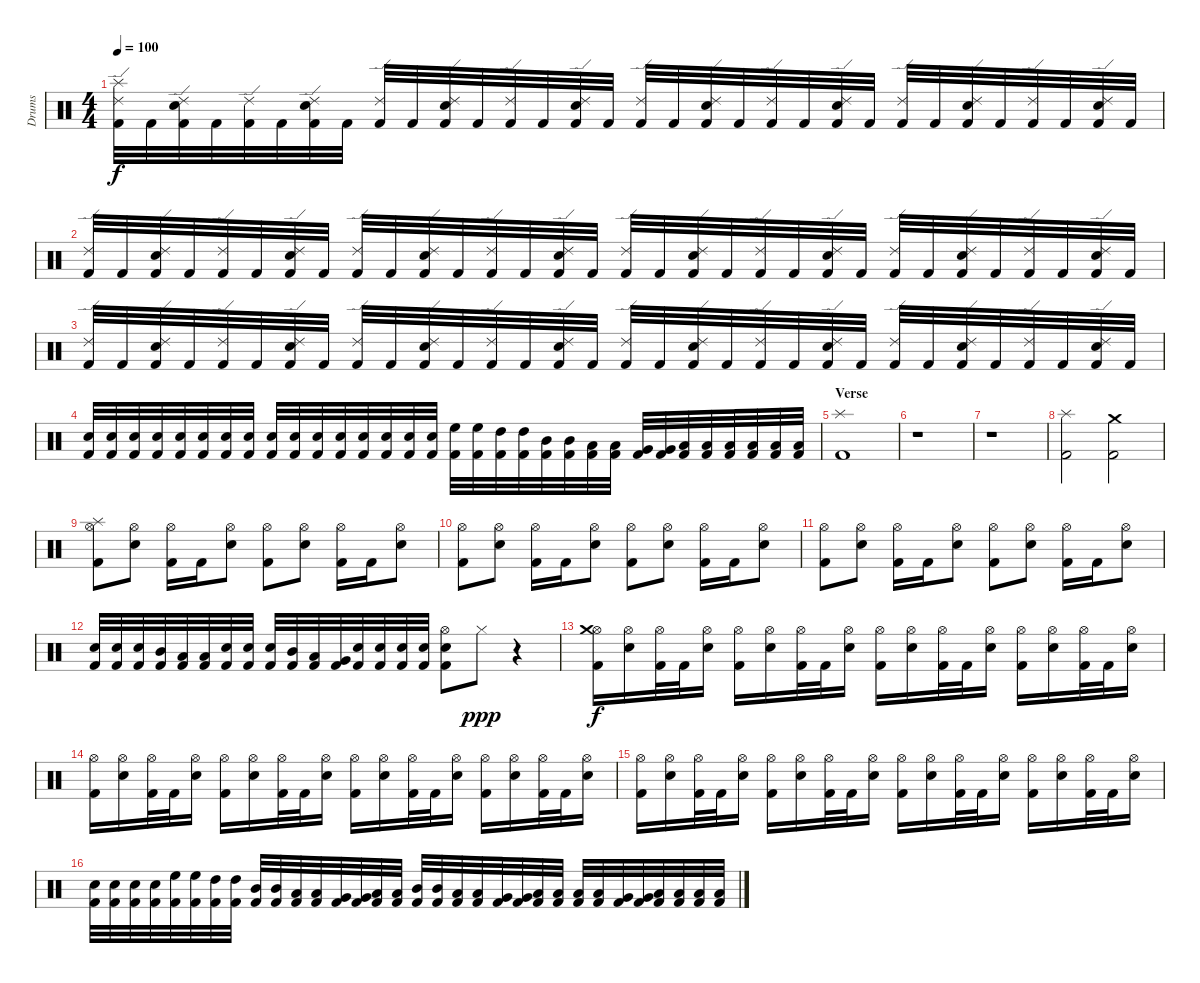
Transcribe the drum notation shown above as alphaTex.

\track ("Drums" "Drums") {instrument percussion}
\staff {score}
\articulation defaults
\ts (4 4)
\tempo 100
\clef neutral
\ks c
("Kick (hit) 2" "Ride (edge) 2" "Splash (hit)").32{dy f} "Kick (hit) 2".32 ("Kick (hit) 2" "Snare (hit) 2" "Ride (edge) 2").32 "Kick (hit) 2".32 ("Kick (hit) 2" "Ride (edge) 2").32 "Kick (hit) 2".32 ("Kick (hit) 2" "Snare (hit) 2" "Ride (edge) 2").32 "Kick (hit) 2".32 ("Kick (hit) 2" "Ride (edge) 2").32 "Kick (hit) 2".32 ("Kick (hit) 2" "Snare (hit) 2" "Ride (edge) 2").32 "Kick (hit) 2".32 ("Kick (hit) 2" "Ride (edge) 2").32 "Kick (hit) 2".32 ("Kick (hit) 2" "Snare (hit) 2" "Ride (edge) 2").32 "Kick (hit) 2".32 ("Kick (hit) 2" "Ride (edge) 2").32 "Kick (hit) 2".32 ("Kick (hit) 2" "Snare (hit) 2" "Ride (edge) 2").32 "Kick (hit) 2".32 ("Kick (hit) 2" "Ride (edge) 2").32 "Kick (hit) 2".32 ("Kick (hit) 2" "Snare (hit) 2" "Ride (edge) 2").32 "Kick (hit) 2".32 ("Kick (hit) 2" "Ride (edge) 2").32 "Kick (hit) 2".32 ("Kick (hit) 2" "Snare (hit) 2" "Ride (edge) 2").32 "Kick (hit) 2".32 ("Kick (hit) 2" "Ride (edge) 2").32 "Kick (hit) 2".32 ("Kick (hit) 2" "Snare (hit) 2" "Ride (edge) 2").32 "Kick (hit) 2".32 |
("Kick (hit) 2" "Ride (edge) 2").32 "Kick (hit) 2".32 ("Kick (hit) 2" "Snare (hit) 2" "Ride (edge) 2").32 "Kick (hit) 2".32 ("Kick (hit) 2" "Ride (edge) 2").32 "Kick (hit) 2".32 ("Kick (hit) 2" "Snare (hit) 2" "Ride (edge) 2").32 "Kick (hit) 2".32 ("Kick (hit) 2" "Ride (edge) 2").32 "Kick (hit) 2".32 ("Kick (hit) 2" "Snare (hit) 2" "Ride (edge) 2").32 "Kick (hit) 2".32 ("Kick (hit) 2" "Ride (edge) 2").32 "Kick (hit) 2".32 ("Kick (hit) 2" "Snare (hit) 2" "Ride (edge) 2").32 "Kick (hit) 2".32 ("Kick (hit) 2" "Ride (edge) 2").32 "Kick (hit) 2".32 ("Kick (hit) 2" "Snare (hit) 2" "Ride (edge) 2").32 "Kick (hit) 2".32 ("Kick (hit) 2" "Ride (edge) 2").32 "Kick (hit) 2".32 ("Kick (hit) 2" "Snare (hit) 2" "Ride (edge) 2").32 "Kick (hit) 2".32 ("Kick (hit) 2" "Ride (edge) 2").32 "Kick (hit) 2".32 ("Kick (hit) 2" "Snare (hit) 2" "Ride (edge) 2").32 "Kick (hit) 2".32 ("Kick (hit) 2" "Ride (edge) 2").32 "Kick (hit) 2".32 ("Kick (hit) 2" "Snare (hit) 2" "Ride (edge) 2").32 "Kick (hit) 2".32 |
("Kick (hit) 2" "Ride (edge) 2").32 "Kick (hit) 2".32 ("Kick (hit) 2" "Snare (hit) 2" "Ride (edge) 2").32 "Kick (hit) 2".32 ("Kick (hit) 2" "Ride (edge) 2").32 "Kick (hit) 2".32 ("Kick (hit) 2" "Snare (hit) 2" "Ride (edge) 2").32 "Kick (hit) 2".32 ("Kick (hit) 2" "Ride (edge) 2").32 "Kick (hit) 2".32 ("Kick (hit) 2" "Snare (hit) 2" "Ride (edge) 2").32 "Kick (hit) 2".32 ("Kick (hit) 2" "Ride (edge) 2").32 "Kick (hit) 2".32 ("Kick (hit) 2" "Snare (hit) 2" "Ride (edge) 2").32 "Kick (hit) 2".32 ("Kick (hit) 2" "Ride (edge) 2").32 "Kick (hit) 2".32 ("Kick (hit) 2" "Snare (hit) 2" "Ride (edge) 2").32 "Kick (hit) 2".32 ("Kick (hit) 2" "Ride (edge) 2").32 "Kick (hit) 2".32 ("Kick (hit) 2" "Snare (hit) 2" "Ride (edge) 2").32 "Kick (hit) 2".32 ("Kick (hit) 2" "Ride (edge) 2").32 "Kick (hit) 2".32 ("Kick (hit) 2" "Snare (hit) 2" "Ride (edge) 2").32 "Kick (hit) 2".32 ("Kick (hit) 2" "Ride (edge) 2").32 "Kick (hit) 2".32 ("Kick (hit) 2" "Snare (hit) 2" "Ride (edge) 2").32 "Kick (hit) 2".32 |
("Kick (hit) 2" "Snare (hit) 2").32 ("Kick (hit) 2" "Snare (hit) 2").32 ("Kick (hit) 2" "Snare (hit) 2").32 ("Kick (hit) 2" "Snare (hit) 2").32 ("Kick (hit) 2" "Snare (hit) 2").32 ("Kick (hit) 2" "Snare (hit) 2").32 ("Kick (hit) 2" "Snare (hit) 2").32 ("Kick (hit) 2" "Snare (hit) 2").32 ("Kick (hit) 2" "Snare (hit) 2").32 ("Kick (hit) 2" "Snare (hit) 2").32 ("Kick (hit) 2" "Snare (hit) 2").32 ("Kick (hit) 2" "Snare (hit) 2").32 ("Kick (hit) 2" "Snare (hit) 2").32 ("Kick (hit) 2" "Snare (hit) 2").32 ("Kick (hit) 2" "Snare (hit) 2").32 ("Kick (hit) 2" "Snare (hit) 2").32 ("Kick (hit) 2" "High Floor Tom (hit)").32 ("Kick (hit) 2" "High Floor Tom (hit)").32 ("Kick (hit) 2" "High Tom (hit)").32 ("Kick (hit) 2" "High Tom (hit)").32 ("Kick (hit) 2" "Mid Tom (hit)").32 ("Kick (hit) 2" "Mid Tom (hit)").32 ("Kick (hit) 2" "Low Tom (hit)").32 ("Kick (hit) 2" "Low Tom (hit)").32 ("Kick (hit) 2" "Very Low Tom (hit)").32 ("Kick (hit) 2" "Very Low Tom (hit)").32 ("Kick (hit) 2" "Low Floor Tom (hit)").32 ("Kick (hit) 2" "Low Floor Tom (hit)").32 ("Kick (hit) 2" "Low Floor Tom (hit)").32 ("Kick (hit) 2" "Low Floor Tom (hit)").32 ("Kick (hit) 2" "Low Floor Tom (hit)").32 ("Kick (hit) 2" "Low Floor Tom (hit)").32 |
\section ("" "Verse")
("Kick (hit) 2" "Splash (hit)").1 |
r.1 |
r.1 |
("Kick (hit) 2" "Splash (hit)").2 ("Kick (hit) 2" "Crash medium (hit)").2 |
\section ("" "")
("Kick (hit) 2" "Hi-Hat (open)" "Splash (hit)").8 ("Snare (hit) 2" "Hi-Hat (open)").8 ("Kick (hit) 2" "Hi-Hat (open)").16 "Kick (hit) 2".16 ("Snare (hit) 2" "Hi-Hat (open)").8 ("Kick (hit) 2" "Hi-Hat (open)").8 ("Snare (hit) 2" "Hi-Hat (open)").8 ("Kick (hit) 2" "Hi-Hat (open)").16 "Kick (hit) 2".16 ("Snare (hit) 2" "Hi-Hat (open)").8 |
("Kick (hit) 2" "Hi-Hat (open)").8 ("Snare (hit) 2" "Hi-Hat (open)").8 ("Kick (hit) 2" "Hi-Hat (open)").16 "Kick (hit) 2".16 ("Snare (hit) 2" "Hi-Hat (open)").8 ("Kick (hit) 2" "Hi-Hat (open)").8 ("Snare (hit) 2" "Hi-Hat (open)").8 ("Kick (hit) 2" "Hi-Hat (open)").16 "Kick (hit) 2".16 ("Snare (hit) 2" "Hi-Hat (open)").8 |
("Kick (hit) 2" "Hi-Hat (open)").8 ("Snare (hit) 2" "Hi-Hat (open)").8 ("Kick (hit) 2" "Hi-Hat (open)").16 "Kick (hit) 2".16 ("Snare (hit) 2" "Hi-Hat (open)").8 ("Kick (hit) 2" "Hi-Hat (open)").8 ("Snare (hit) 2" "Hi-Hat (open)").8 ("Kick (hit) 2" "Hi-Hat (open)").16 "Kick (hit) 2".16 ("Snare (hit) 2" "Hi-Hat (open)").8 |
("Kick (hit) 2" "Snare (hit) 2").32 ("Kick (hit) 2" "Snare (hit) 2").32 ("Kick (hit) 2" "Snare (hit) 2").32 ("Kick (hit) 2" "Mid Tom (hit)").32 ("Kick (hit) 2" "Low Tom (hit)").32 ("Kick (hit) 2" "Low Tom (hit)").32 ("Kick (hit) 2" "Snare (hit) 2").32 ("Kick (hit) 2" "Snare (hit) 2").32 ("Kick (hit) 2" "Snare (hit) 2").32 ("Kick (hit) 2" "Mid Tom (hit)").32 ("Kick (hit) 2" "Low Tom (hit)").32 ("Kick (hit) 2" "Very Low Tom (hit)").32 ("Kick (hit) 2" "Snare (hit) 2").32 ("Kick (hit) 2" "Snare (hit) 2").32 ("Kick (hit) 2" "Snare (hit) 2").32 ("Kick (hit) 2" "Snare (hit) 2").32 ("Kick (hit) 2" "Snare (hit) 2" "Hi-Hat (open)").8 "Hi-Hat (closed)".8{dy ppp} r.4 |
\section ("" "")
("Kick (hit) 2" "Hi-Hat (open)" "Crash medium (hit)").16{dy f} ("Snare (hit) 2" "Hi-Hat (open)").16 ("Kick (hit) 2" "Hi-Hat (open)").32 "Kick (hit) 2".32 ("Snare (hit) 2" "Hi-Hat (open)").16 ("Kick (hit) 2" "Hi-Hat (open)").16 ("Snare (hit) 2" "Hi-Hat (open)").16 ("Kick (hit) 2" "Hi-Hat (open)").32 "Kick (hit) 2".32 ("Snare (hit) 2" "Hi-Hat (open)").16 ("Kick (hit) 2" "Hi-Hat (open)").16 ("Snare (hit) 2" "Hi-Hat (open)").16 ("Kick (hit) 2" "Hi-Hat (open)").32 "Kick (hit) 2".32 ("Snare (hit) 2" "Hi-Hat (open)").16 ("Kick (hit) 2" "Hi-Hat (open)").16 ("Snare (hit) 2" "Hi-Hat (open)").16 ("Kick (hit) 2" "Hi-Hat (open)").32 "Kick (hit) 2".32 ("Snare (hit) 2" "Hi-Hat (open)").16 |
("Kick (hit) 2" "Hi-Hat (open)").16 ("Snare (hit) 2" "Hi-Hat (open)").16 ("Kick (hit) 2" "Hi-Hat (open)").32 "Kick (hit) 2".32 ("Snare (hit) 2" "Hi-Hat (open)").16 ("Kick (hit) 2" "Hi-Hat (open)").16 ("Snare (hit) 2" "Hi-Hat (open)").16 ("Kick (hit) 2" "Hi-Hat (open)").32 "Kick (hit) 2".32 ("Snare (hit) 2" "Hi-Hat (open)").16 ("Kick (hit) 2" "Hi-Hat (open)").16 ("Snare (hit) 2" "Hi-Hat (open)").16 ("Kick (hit) 2" "Hi-Hat (open)").32 "Kick (hit) 2".32 ("Snare (hit) 2" "Hi-Hat (open)").16 ("Kick (hit) 2" "Hi-Hat (open)").16 ("Snare (hit) 2" "Hi-Hat (open)").16 ("Kick (hit) 2" "Hi-Hat (open)").32 "Kick (hit) 2".32 ("Snare (hit) 2" "Hi-Hat (open)").16 |
("Kick (hit) 2" "Hi-Hat (open)").16 ("Snare (hit) 2" "Hi-Hat (open)").16 ("Kick (hit) 2" "Hi-Hat (open)").32 "Kick (hit) 2".32 ("Snare (hit) 2" "Hi-Hat (open)").16 ("Kick (hit) 2" "Hi-Hat (open)").16 ("Snare (hit) 2" "Hi-Hat (open)").16 ("Kick (hit) 2" "Hi-Hat (open)").32 "Kick (hit) 2".32 ("Snare (hit) 2" "Hi-Hat (open)").16 ("Kick (hit) 2" "Hi-Hat (open)").16 ("Snare (hit) 2" "Hi-Hat (open)").16 ("Kick (hit) 2" "Hi-Hat (open)").32 "Kick (hit) 2".32 ("Snare (hit) 2" "Hi-Hat (open)").16 ("Kick (hit) 2" "Hi-Hat (open)").16 ("Snare (hit) 2" "Hi-Hat (open)").16 ("Kick (hit) 2" "Hi-Hat (open)").32 "Kick (hit) 2".32 ("Snare (hit) 2" "Hi-Hat (open)").16 |
("Kick (hit) 2" "Snare (hit) 2").32 ("Kick (hit) 2" "Snare (hit) 2").32 ("Kick (hit) 2" "Snare (hit) 2").32 ("Kick (hit) 2" "Snare (hit) 2").32 ("Kick (hit) 2" "High Floor Tom (hit)").32 ("Kick (hit) 2" "High Floor Tom (hit)").32 ("Kick (hit) 2" "High Tom (hit)").32 ("Kick (hit) 2" "High Tom (hit)").32 ("Kick (hit) 2" "Mid Tom (hit)").32 ("Kick (hit) 2" "Mid Tom (hit)").32 ("Kick (hit) 2" "Low Tom (hit)").32 ("Kick (hit) 2" "Low Tom (hit)").32 ("Kick (hit) 2" "Very Low Tom (hit)").32 ("Kick (hit) 2" "Very Low Tom (hit)").32 ("Kick (hit) 2" "Low Floor Tom (hit)").32 ("Kick (hit) 2" "Low Floor Tom (hit)").32 ("Kick (hit) 2" "Mid Tom (hit)").32 ("Kick (hit) 2" "Mid Tom (hit)").32 ("Kick (hit) 2" "Low Tom (hit)").32 ("Kick (hit) 2" "Low Tom (hit)").32 ("Kick (hit) 2" "Very Low Tom (hit)").32 ("Kick (hit) 2" "Very Low Tom (hit)").32 ("Kick (hit) 2" "Low Floor Tom (hit)").32 ("Kick (hit) 2" "Low Floor Tom (hit)").32 ("Kick (hit) 2" "Low Tom (hit)").32 ("Kick (hit) 2" "Low Tom (hit)").32 ("Kick (hit) 2" "Very Low Tom (hit)").32 ("Kick (hit) 2" "Very Low Tom (hit)").32 ("Kick (hit) 2" "Low Floor Tom (hit)").32 ("Kick (hit) 2" "Low Floor Tom (hit)").32 ("Kick (hit) 2" "Low Floor Tom (hit)").32 ("Kick (hit) 2" "Low Floor Tom (hit)").32
